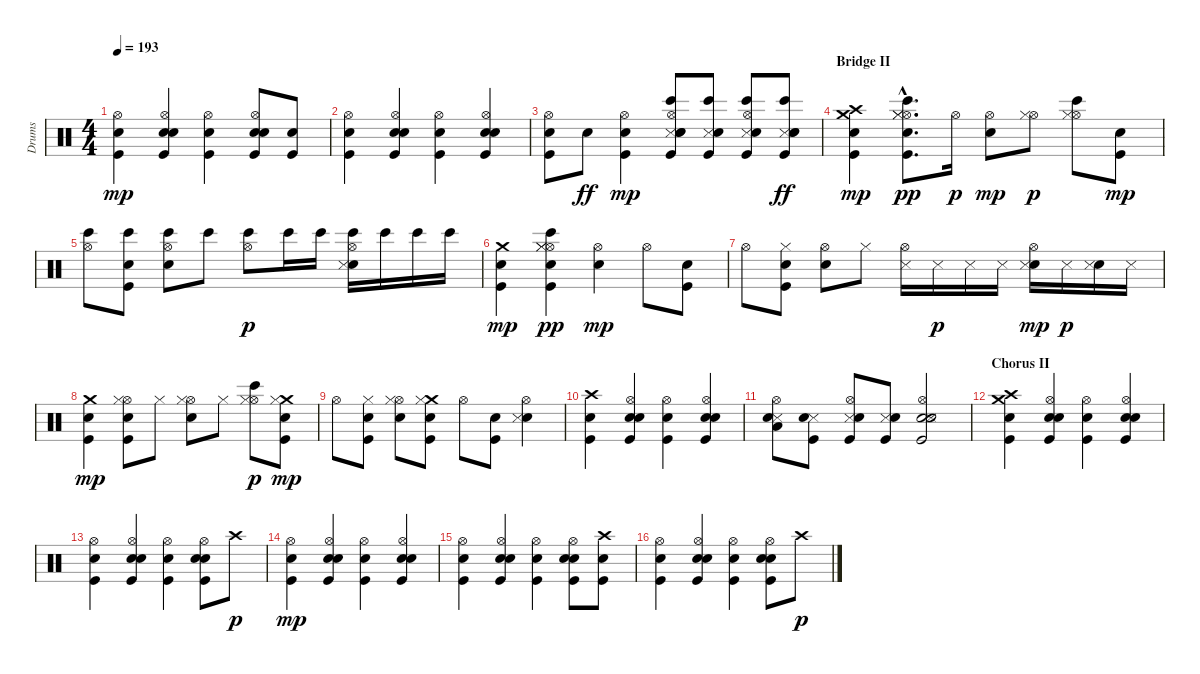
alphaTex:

\track ("Drums" "Drums") {instrument percussion}
\staff {score}
\articulation defaults
\ts (4 4)
\tempo 193
\clef neutral
\ks c
("Kick (hit)" "Snare (hit) 2" "Hi-Hat (open)").4{dy mp} ("Kick (hit)" "Snare (hit) 2" "Electric Snare (hit)" "Hi-Hat (open)").4 ("Kick (hit)" "Snare (hit) 2" "Hi-Hat (open)").4 ("Kick (hit)" "Snare (hit) 2" "Electric Snare (hit)" "Hi-Hat (open)").8 ("Kick (hit)" "Snare (hit) 2").8 |
("Kick (hit)" "Snare (hit) 2" "Hi-Hat (open)").4 ("Kick (hit)" "Snare (hit) 2" "Electric Snare (hit)" "Hi-Hat (open)").4 ("Kick (hit)" "Snare (hit) 2" "Hi-Hat (open)").4 ("Kick (hit)" "Snare (hit) 2" "Electric Snare (hit)" "Hi-Hat (open)").4 |
("Kick (hit)" "Snare (hit) 2" "Hi-Hat (open)").8 "Electric Snare (hit)".8{dy ff} ("Kick (hit)" "Snare (hit) 2" "Hi-Hat (open)").4{dy mp} ("Bongo High (hit)" "Snare (side stick) 3" "Kick (hit)" "Snare (hit) 2" "Electric Snare (hit)" "Hi-Hat (open)").8 ("Bongo High (hit)" "Snare (side stick) 3" "Kick (hit)" "Snare (hit) 2").8 ("Bongo High (hit)" "Snare (side stick) 3" "Kick (hit)" "Snare (hit) 2" "Hi-Hat (open)").8 ("Bongo High (hit)" "Snare (side stick) 3" "Kick (hit)" "Snare (hit) 2" "Electric Snare (hit)").8{dy ff} |
\section ("" "Bridge II")
("Crash high (hit)" "Crash medium (hit)" "Kick (hit)" "Snare (hit) 2").4{dy mp} ("Kick (hit)"{hac} "Snare (hit) 2"{hac} "Hi-Hat (open)"{hac} "Hi-Hat (closed)"{hac} "Bongo High (hit)"{hac} "Hi-Hat (closed)"{hac}).8{d dy pp} "Hi-Hat (open)".16{dy p} ("Electric Snare (hit)" "Hi-Hat (open)").8{dy mp} ("Hi-Hat (open)" "Hi-Hat (closed)").8{dy p} ("Hi-Hat (open)" "Bongo High (hit)" "Hi-Hat (closed)").8 ("Kick (hit)" "Snare (hit) 2").8{dy mp} |
("Hi-Hat (open)" "Bongo High (hit)").8 ("Kick (hit)" "Snare (hit) 2" "Bongo High (hit)").8 ("Electric Snare (hit)" "Hi-Hat (open)" "Bongo High (hit)").8 "Bongo High (hit)".8 ("Hi-Hat (open)" "Bongo High (hit)").8{dy p} "Bongo High (hit)".16 "Bongo High (hit)".16 ("Electric Snare (hit)" "Snare (side stick) 3" "Hi-Hat (open)" "Bongo High (hit)").16 "Bongo High (hit)".16 "Bongo High (hit)".16 "Bongo High (hit)".16 |
("Crash medium (hit)" "Kick (hit)" "Snare (hit) 2").4{dy mp} ("Kick (hit)" "Snare (hit) 2" "Hi-Hat (open)" "Hi-Hat (closed)" "Bongo High (hit)" "Hi-Hat (closed)").4{dy pp} ("Electric Snare (hit)" "Hi-Hat (open)").4{dy mp} "Hi-Hat (open)".8 ("Kick (hit)" "Snare (hit) 2").8 |
"Hi-Hat (open)".8 ("Kick (hit)" "Snare (hit) 2" "Hi-Hat (closed)").8 ("Electric Snare (hit)" "Hi-Hat (open)").8 "Hi-Hat (closed)".8 ("Snare (side stick) 3" "Hi-Hat (open)").16 "Snare (side stick) 3".16{dy p} "Snare (side stick) 3".16 "Snare (side stick) 3".16 ("Electric Snare (hit)" "Snare (side stick) 3" "Hi-Hat (open)").16{dy mp} "Snare (side stick) 3".16{dy p} ("Electric Snare (hit)" "Snare (side stick) 3").16 "Snare (side stick) 3".16 |
("Crash medium (hit)" "Kick (hit)" "Snare (hit) 2").4{dy mp} ("Kick (hit)" "Snare (hit) 2" "Hi-Hat (open)" "Hi-Hat (closed)").8 "Hi-Hat (closed)".8 ("Electric Snare (hit)" "Hi-Hat (open)" "Hi-Hat (closed)").8 "Hi-Hat (closed)".8 ("Hi-Hat (open)" "Bongo High (hit)" "Hi-Hat (closed)").8{dy p} ("Crash medium (hit)" "Kick (hit)" "Snare (hit) 2" "Hi-Hat (closed)").8{dy mp} |
"Hi-Hat (open)".8 ("Kick (hit)" "Snare (hit) 2" "Hi-Hat (closed)").8 ("Electric Snare (hit)" "Hi-Hat (open)" "Hi-Hat (closed)").8 ("Crash medium (hit)" "Kick (hit)" "Snare (hit) 2" "Hi-Hat (closed)").8 "Hi-Hat (open)".8 ("Kick (hit)" "Snare (hit) 2").8 ("Electric Snare (hit)" "Snare (side stick) 3" "Hi-Hat (open)").4 |
("Crash high (hit)" "Kick (hit)" "Snare (hit) 2").4 ("Kick (hit)" "Snare (hit) 2" "Electric Snare (hit)" "Hi-Hat (open)").4 ("Kick (hit)" "Snare (hit) 2" "Hi-Hat (open)").4 ("Kick (hit)" "Snare (hit) 2" "Electric Snare (hit)" "Hi-Hat (open)").4 |
("Low Tom (hit)" "Snare (side stick) 3" "Electric Snare (hit)" "Hi-Hat (open)").8 ("Snare (side stick) 3" "Kick (hit)" "Snare (hit) 2").8 ("Snare (side stick) 3" "Kick (hit)" "Snare (hit) 2" "Hi-Hat (open)").8 ("Snare (side stick) 3" "Kick (hit)" "Snare (hit) 2").8 ("Kick (hit)" "Snare (hit) 2" "Electric Snare (hit)" "Snare (side stick) 3" "Hi-Hat (open)").2 |
\section ("" "Chorus II")
("Crash medium (hit)" "Crash high (hit)" "Kick (hit)" "Snare (hit) 2").4 ("Kick (hit)" "Snare (hit) 2" "Electric Snare (hit)" "Hi-Hat (open)").4 ("Kick (hit)" "Snare (hit) 2" "Hi-Hat (open)").4 ("Kick (hit)" "Snare (hit) 2" "Electric Snare (hit)" "Hi-Hat (open)").4 |
("Kick (hit)" "Snare (hit) 2" "Hi-Hat (open)").4 ("Kick (hit)" "Snare (hit) 2" "Electric Snare (hit)" "Hi-Hat (open)").4 ("Kick (hit)" "Snare (hit) 2" "Hi-Hat (open)").4 ("Kick (hit)" "Snare (hit) 2" "Electric Snare (hit)" "Hi-Hat (open)").8 "Crash high (hit)".8{dy p} |
("Kick (hit)" "Snare (hit) 2" "Hi-Hat (open)").4{dy mp} ("Kick (hit)" "Snare (hit) 2" "Electric Snare (hit)" "Hi-Hat (open)").4 ("Kick (hit)" "Snare (hit) 2" "Hi-Hat (open)").4 ("Kick (hit)" "Snare (hit) 2" "Electric Snare (hit)" "Hi-Hat (open)").4 |
("Kick (hit)" "Snare (hit) 2" "Hi-Hat (open)").4 ("Kick (hit)" "Snare (hit) 2" "Electric Snare (hit)" "Hi-Hat (open)").4 ("Kick (hit)" "Snare (hit) 2" "Hi-Hat (open)").4 ("Kick (hit)" "Snare (hit) 2" "Electric Snare (hit)" "Hi-Hat (open)").8 ("Crash high (hit)" "Kick (hit)" "Snare (hit) 2").8 |
("Kick (hit)" "Snare (hit) 2" "Hi-Hat (open)").4 ("Kick (hit)" "Snare (hit) 2" "Electric Snare (hit)" "Hi-Hat (open)").4 ("Kick (hit)" "Snare (hit) 2" "Hi-Hat (open)").4 ("Kick (hit)" "Snare (hit) 2" "Electric Snare (hit)" "Hi-Hat (open)").8 "Crash high (hit)".8{dy p}
